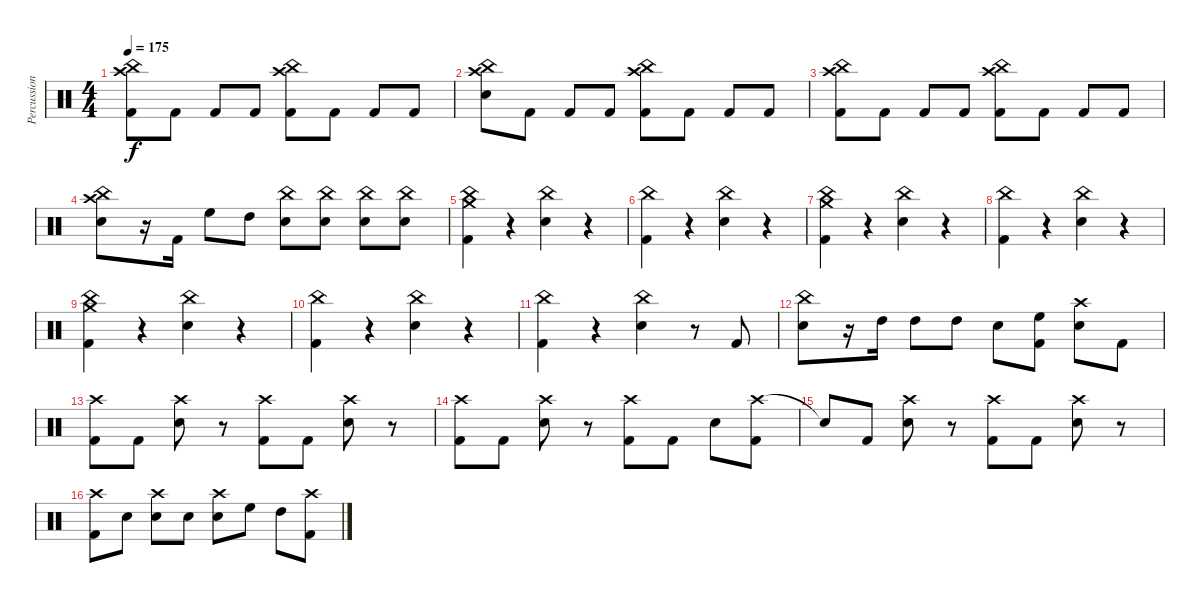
\track ("Percussion" "Percussion") {instrument percussion}
\staff {score}
\articulation defaults
\ts (4 4)
\tempo 175
\clef neutral
\ks c
("Crash high (hit)" "China (hit)" "Kick (hit) 2").8{dy f} "Kick (hit) 2".8 "Kick (hit) 2".8 "Kick (hit) 2".8 ("Crash high (hit)" "China (hit)" "Kick (hit) 2").8 "Kick (hit) 2".8 "Kick (hit) 2".8 "Kick (hit) 2".8 |
("Crash high (hit)" "China (hit)" "Electric Snare (hit)").8 "Kick (hit) 2".8 "Kick (hit) 2".8 "Kick (hit) 2".8 ("Crash high (hit)" "China (hit)" "Kick (hit) 2").8 "Kick (hit) 2".8 "Kick (hit) 2".8 "Kick (hit) 2".8 |
("Crash high (hit)" "China (hit)" "Kick (hit) 2").8 "Kick (hit) 2".8 "Kick (hit) 2".8 "Kick (hit) 2".8 ("Crash high (hit)" "China (hit)" "Kick (hit) 2").8 "Kick (hit) 2".8 "Kick (hit) 2".8 "Kick (hit) 2".8 |
("Crash high (hit)" "China (hit)" "Electric Snare (hit)").8 r.16 "Kick (hit) 2".16 "High Floor Tom (hit)".8 "High Tom (hit)".8 ("China (hit)" "Electric Snare (hit)").8 ("China (hit)" "Electric Snare (hit)").8 ("China (hit)" "Electric Snare (hit)").8 ("China (hit)" "Electric Snare (hit)").8 |
("China (hit)" "Crash medium (hit)" "Kick (hit) 2").4 r.4 ("China (hit)" "Electric Snare (hit)").4 r.4 |
("China (hit)" "Kick (hit) 2").4 r.4 ("China (hit)" "Electric Snare (hit)").4 r.4 |
("China (hit)" "Crash medium (hit)" "Kick (hit) 2").4 r.4 ("China (hit)" "Electric Snare (hit)").4 r.4 |
("China (hit)" "Kick (hit) 2").4 r.4 ("China (hit)" "Electric Snare (hit)").4 r.4 |
("China (hit)" "Crash medium (hit)" "Kick (hit) 2").4 r.4 ("China (hit)" "Electric Snare (hit)").4 r.4 |
("China (hit)" "Kick (hit) 2").4 r.4 ("China (hit)" "Electric Snare (hit)").4 r.4 |
("China (hit)" "Kick (hit) 2").4 r.4 ("China (hit)" "Electric Snare (hit)").4 r.8 "Kick (hit) 2".8 |
("China (hit)" "Electric Snare (hit)").8 r.16 "High Tom (hit)".16 "High Tom (hit)".8 "High Tom (hit)".8 "Electric Snare (hit)".8 ("High Floor Tom (hit)" "Kick (hit) 2").8 ("Crash high (hit)" "Electric Snare (hit)").8 "Kick (hit) 2".8 |
("Crash high (hit)" "Kick (hit) 2").8 "Kick (hit) 2".8 ("Crash high (hit)" "Electric Snare (hit)").8 r.8 ("Crash high (hit)" "Kick (hit) 2").8 "Kick (hit) 2".8 ("Crash high (hit)" "Electric Snare (hit)").8 r.8 |
("Crash high (hit)" "Kick (hit) 2").8 "Kick (hit) 2".8 ("Crash high (hit)" "Electric Snare (hit)").8 r.8 ("Crash high (hit)" "Kick (hit) 2").8 "Kick (hit) 2".8 "Electric Snare (hit)".8 ("Crash high (hit)" "Kick (hit) 2").8 |
"Snare (hit)"{t}.8 "Kick (hit) 2".8 ("Crash high (hit)" "Electric Snare (hit)").8 r.8 ("Crash high (hit)" "Kick (hit) 2").8 "Kick (hit) 2".8 ("Crash high (hit)" "Electric Snare (hit)").8 r.8 |
("Crash high (hit)" "Kick (hit) 2").8 "Electric Snare (hit)".8 ("Crash high (hit)" "Electric Snare (hit)").8 "Electric Snare (hit)".8 ("Crash high (hit)" "Electric Snare (hit)").8 "High Floor Tom (hit)".8 "High Tom (hit)".8 ("Crash high (hit)" "Kick (hit) 2").8
